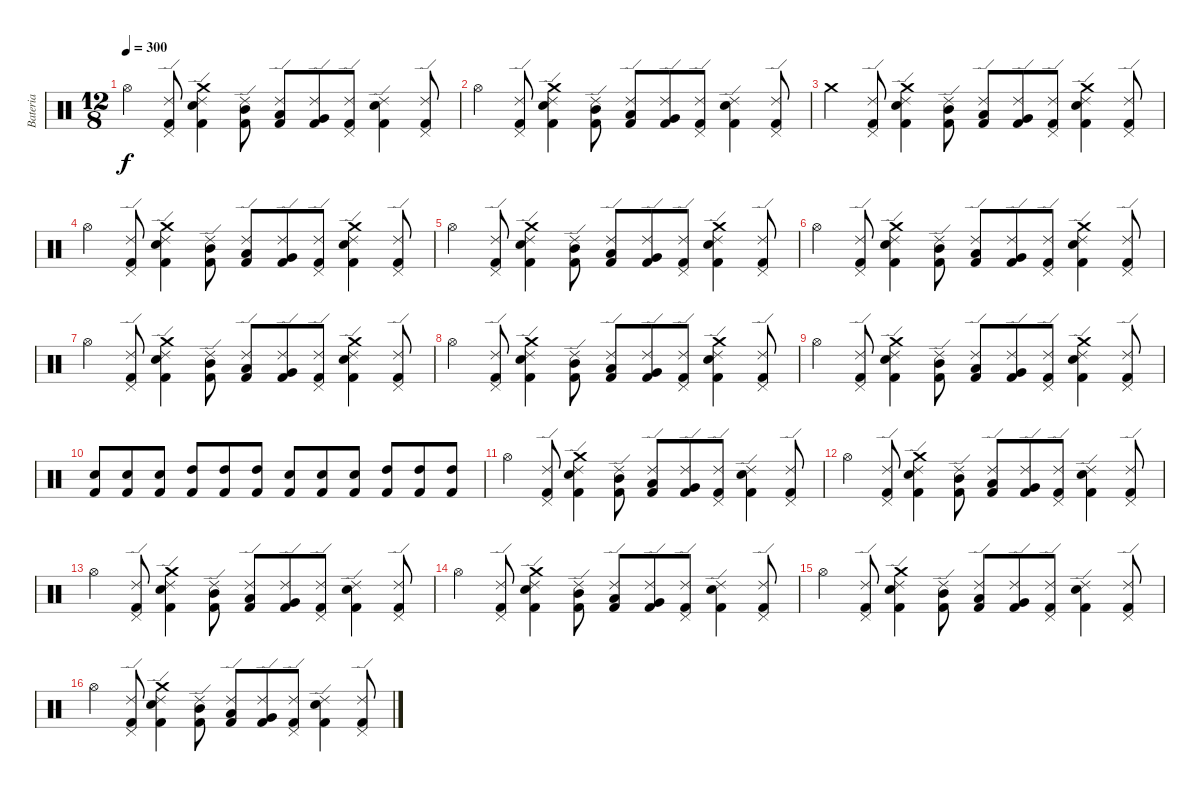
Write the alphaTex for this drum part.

\track ("Bateria" "Bateria") {instrument percussion}
\staff {score}
\articulation defaults
\ts (12 8)
\tempo 300
\clef neutral
\ks c "Hi-Hat (open)".4{dy f}
("Ride (edge) 2" "Pedal Hi-Hat (hit)" "Kick (hit) 2").8 ("Ride (edge) 2" "Crash medium (hit)" "Snare (hit) 2" "Kick (hit) 2").4 ("Ride (edge) 2" "Mid Tom (hit)" "Kick (hit) 2").8 ("Ride (edge) 2" "Low Tom (hit)" "Kick (hit) 2").8 ("Ride (edge) 2" "Very Low Tom (hit)" "Kick (hit) 2").8 ("Ride (edge) 2" "Pedal Hi-Hat (hit)" "Kick (hit) 2").8 ("Ride (edge) 2" "Snare (hit) 2" "Kick (hit) 2").4 ("Ride (edge) 2" "Pedal Hi-Hat (hit)" "Kick (hit) 2").8 |
"Hi-Hat (open)".4 ("Ride (edge) 2" "Pedal Hi-Hat (hit)" "Kick (hit) 2").8 ("Ride (edge) 2" "Crash medium (hit)" "Snare (hit) 2" "Kick (hit) 2").4 ("Ride (edge) 2" "Mid Tom (hit)" "Kick (hit) 2").8 ("Ride (edge) 2" "Low Tom (hit)" "Kick (hit) 2").8 ("Ride (edge) 2" "Very Low Tom (hit)" "Kick (hit) 2").8 ("Ride (edge) 2" "Pedal Hi-Hat (hit)" "Kick (hit) 2").8 ("Ride (edge) 2" "Snare (hit) 2" "Kick (hit) 2").4 ("Ride (edge) 2" "Pedal Hi-Hat (hit)" "Kick (hit) 2").8 |
"Crash medium (hit)".4 ("Ride (edge) 2" "Pedal Hi-Hat (hit)" "Kick (hit) 2").8 ("Ride (edge) 2" "Crash medium (hit)" "Snare (hit) 2" "Kick (hit) 2").4 ("Ride (edge) 2" "Mid Tom (hit)" "Kick (hit) 2").8 ("Ride (edge) 2" "Low Tom (hit)" "Kick (hit) 2").8 ("Ride (edge) 2" "Very Low Tom (hit)" "Kick (hit) 2").8 ("Ride (edge) 2" "Pedal Hi-Hat (hit)" "Kick (hit) 2").8 ("Ride (edge) 2" "Crash medium (hit)" "Snare (hit) 2" "Kick (hit) 2").4 ("Ride (edge) 2" "Pedal Hi-Hat (hit)" "Kick (hit) 2").8 |
"Hi-Hat (open)".4 ("Ride (edge) 2" "Pedal Hi-Hat (hit)" "Kick (hit) 2").8 ("Ride (edge) 2" "Crash medium (hit)" "Snare (hit) 2" "Kick (hit) 2").4 ("Ride (edge) 2" "Mid Tom (hit)" "Kick (hit) 2").8 ("Ride (edge) 2" "Low Tom (hit)" "Kick (hit) 2").8 ("Ride (edge) 2" "Very Low Tom (hit)" "Kick (hit) 2").8 ("Ride (edge) 2" "Pedal Hi-Hat (hit)" "Kick (hit) 2").8 ("Ride (edge) 2" "Crash medium (hit)" "Snare (hit) 2" "Kick (hit) 2").4 ("Ride (edge) 2" "Pedal Hi-Hat (hit)" "Kick (hit) 2").8 |
"Hi-Hat (open)".4 ("Ride (edge) 2" "Pedal Hi-Hat (hit)" "Kick (hit) 2").8 ("Ride (edge) 2" "Crash medium (hit)" "Snare (hit) 2" "Kick (hit) 2").4 ("Ride (edge) 2" "Mid Tom (hit)" "Kick (hit) 2").8 ("Ride (edge) 2" "Low Tom (hit)" "Kick (hit) 2").8 ("Ride (edge) 2" "Very Low Tom (hit)" "Kick (hit) 2").8 ("Ride (edge) 2" "Pedal Hi-Hat (hit)" "Kick (hit) 2").8 ("Ride (edge) 2" "Crash medium (hit)" "Snare (hit) 2" "Kick (hit) 2").4 ("Ride (edge) 2" "Pedal Hi-Hat (hit)" "Kick (hit) 2").8 |
"Hi-Hat (open)".4 ("Ride (edge) 2" "Pedal Hi-Hat (hit)" "Kick (hit) 2").8 ("Ride (edge) 2" "Crash medium (hit)" "Snare (hit) 2" "Kick (hit) 2").4 ("Ride (edge) 2" "Mid Tom (hit)" "Kick (hit) 2").8 ("Ride (edge) 2" "Low Tom (hit)" "Kick (hit) 2").8 ("Ride (edge) 2" "Very Low Tom (hit)" "Kick (hit) 2").8 ("Ride (edge) 2" "Pedal Hi-Hat (hit)" "Kick (hit) 2").8 ("Ride (edge) 2" "Crash medium (hit)" "Snare (hit) 2" "Kick (hit) 2").4 ("Ride (edge) 2" "Pedal Hi-Hat (hit)" "Kick (hit) 2").8 |
"Hi-Hat (open)".4 ("Ride (edge) 2" "Pedal Hi-Hat (hit)" "Kick (hit) 2").8 ("Ride (edge) 2" "Crash medium (hit)" "Snare (hit) 2" "Kick (hit) 2").4 ("Ride (edge) 2" "Mid Tom (hit)" "Kick (hit) 2").8 ("Ride (edge) 2" "Low Tom (hit)" "Kick (hit) 2").8 ("Ride (edge) 2" "Very Low Tom (hit)" "Kick (hit) 2").8 ("Ride (edge) 2" "Pedal Hi-Hat (hit)" "Kick (hit) 2").8 ("Ride (edge) 2" "Crash medium (hit)" "Snare (hit) 2" "Kick (hit) 2").4 ("Ride (edge) 2" "Pedal Hi-Hat (hit)" "Kick (hit) 2").8 |
"Hi-Hat (open)".4 ("Ride (edge) 2" "Pedal Hi-Hat (hit)" "Kick (hit) 2").8 ("Ride (edge) 2" "Crash medium (hit)" "Snare (hit) 2" "Kick (hit) 2").4 ("Ride (edge) 2" "Mid Tom (hit)" "Kick (hit) 2").8 ("Ride (edge) 2" "Low Tom (hit)" "Kick (hit) 2").8 ("Ride (edge) 2" "Very Low Tom (hit)" "Kick (hit) 2").8 ("Ride (edge) 2" "Pedal Hi-Hat (hit)" "Kick (hit) 2").8 ("Ride (edge) 2" "Crash medium (hit)" "Snare (hit) 2" "Kick (hit) 2").4 ("Ride (edge) 2" "Pedal Hi-Hat (hit)" "Kick (hit) 2").8 |
"Hi-Hat (open)".4 ("Ride (edge) 2" "Pedal Hi-Hat (hit)" "Kick (hit) 2").8 ("Ride (edge) 2" "Crash medium (hit)" "Snare (hit) 2" "Kick (hit) 2").4 ("Ride (edge) 2" "Mid Tom (hit)" "Kick (hit) 2").8 ("Ride (edge) 2" "Low Tom (hit)" "Kick (hit) 2").8 ("Ride (edge) 2" "Very Low Tom (hit)" "Kick (hit) 2").8 ("Ride (edge) 2" "Pedal Hi-Hat (hit)" "Kick (hit) 2").8 ("Ride (edge) 2" "Crash medium (hit)" "Snare (hit) 2" "Kick (hit) 2").4 ("Ride (edge) 2" "Pedal Hi-Hat (hit)" "Kick (hit) 2").8 |
("Snare (hit) 2" "Kick (hit) 2").8 ("Snare (hit) 2" "Kick (hit) 2").8 ("Snare (hit) 2" "Kick (hit) 2").8 ("High Tom (hit)" "Kick (hit) 2").8 ("High Tom (hit)" "Kick (hit) 2").8 ("High Tom (hit)" "Kick (hit) 2").8 ("Snare (hit) 2" "Kick (hit) 2").8 ("Snare (hit) 2" "Kick (hit) 2").8 ("Snare (hit) 2" "Kick (hit) 2").8 ("High Tom (hit)" "Kick (hit) 2").8 ("High Tom (hit)" "Kick (hit) 2").8 ("High Tom (hit)" "Kick (hit) 2").8 |
"Hi-Hat (open)".4 ("Ride (edge) 2" "Pedal Hi-Hat (hit)" "Kick (hit) 2").8 ("Ride (edge) 2" "Crash medium (hit)" "Snare (hit) 2" "Kick (hit) 2").4 ("Ride (edge) 2" "Mid Tom (hit)" "Kick (hit) 2").8 ("Ride (edge) 2" "Low Tom (hit)" "Kick (hit) 2").8 ("Ride (edge) 2" "Very Low Tom (hit)" "Kick (hit) 2").8 ("Ride (edge) 2" "Pedal Hi-Hat (hit)" "Kick (hit) 2").8 ("Ride (edge) 2" "Snare (hit) 2" "Kick (hit) 2").4 ("Ride (edge) 2" "Pedal Hi-Hat (hit)" "Kick (hit) 2").8 |
"Hi-Hat (open)".4 ("Ride (edge) 2" "Pedal Hi-Hat (hit)" "Kick (hit) 2").8 ("Ride (edge) 2" "Crash medium (hit)" "Snare (hit) 2" "Kick (hit) 2").4 ("Ride (edge) 2" "Mid Tom (hit)" "Kick (hit) 2").8 ("Ride (edge) 2" "Low Tom (hit)" "Kick (hit) 2").8 ("Ride (edge) 2" "Very Low Tom (hit)" "Kick (hit) 2").8 ("Ride (edge) 2" "Pedal Hi-Hat (hit)" "Kick (hit) 2").8 ("Ride (edge) 2" "Snare (hit) 2" "Kick (hit) 2").4 ("Ride (edge) 2" "Pedal Hi-Hat (hit)" "Kick (hit) 2").8 |
"Hi-Hat (open)".4 ("Ride (edge) 2" "Pedal Hi-Hat (hit)" "Kick (hit) 2").8 ("Ride (edge) 2" "Crash medium (hit)" "Snare (hit) 2" "Kick (hit) 2").4 ("Ride (edge) 2" "Mid Tom (hit)" "Kick (hit) 2").8 ("Ride (edge) 2" "Low Tom (hit)" "Kick (hit) 2").8 ("Ride (edge) 2" "Very Low Tom (hit)" "Kick (hit) 2").8 ("Ride (edge) 2" "Pedal Hi-Hat (hit)" "Kick (hit) 2").8 ("Ride (edge) 2" "Snare (hit) 2" "Kick (hit) 2").4 ("Ride (edge) 2" "Pedal Hi-Hat (hit)" "Kick (hit) 2").8 |
"Hi-Hat (open)".4 ("Ride (edge) 2" "Pedal Hi-Hat (hit)" "Kick (hit) 2").8 ("Ride (edge) 2" "Crash medium (hit)" "Snare (hit) 2" "Kick (hit) 2").4 ("Ride (edge) 2" "Mid Tom (hit)" "Kick (hit) 2").8 ("Ride (edge) 2" "Low Tom (hit)" "Kick (hit) 2").8 ("Ride (edge) 2" "Very Low Tom (hit)" "Kick (hit) 2").8 ("Ride (edge) 2" "Pedal Hi-Hat (hit)" "Kick (hit) 2").8 ("Ride (edge) 2" "Snare (hit) 2" "Kick (hit) 2").4 ("Ride (edge) 2" "Pedal Hi-Hat (hit)" "Kick (hit) 2").8 |
"Hi-Hat (open)".4 ("Ride (edge) 2" "Pedal Hi-Hat (hit)" "Kick (hit) 2").8 ("Ride (edge) 2" "Crash medium (hit)" "Snare (hit) 2" "Kick (hit) 2").4 ("Ride (edge) 2" "Mid Tom (hit)" "Kick (hit) 2").8 ("Ride (edge) 2" "Low Tom (hit)" "Kick (hit) 2").8 ("Ride (edge) 2" "Very Low Tom (hit)" "Kick (hit) 2").8 ("Ride (edge) 2" "Pedal Hi-Hat (hit)" "Kick (hit) 2").8 ("Ride (edge) 2" "Snare (hit) 2" "Kick (hit) 2").4 ("Ride (edge) 2" "Pedal Hi-Hat (hit)" "Kick (hit) 2").8 |
"Hi-Hat (open)".4 ("Ride (edge) 2" "Pedal Hi-Hat (hit)" "Kick (hit) 2").8 ("Ride (edge) 2" "Crash medium (hit)" "Snare (hit) 2" "Kick (hit) 2").4 ("Ride (edge) 2" "Mid Tom (hit)" "Kick (hit) 2").8 ("Ride (edge) 2" "Low Tom (hit)" "Kick (hit) 2").8 ("Ride (edge) 2" "Very Low Tom (hit)" "Kick (hit) 2").8 ("Ride (edge) 2" "Pedal Hi-Hat (hit)" "Kick (hit) 2").8 ("Ride (edge) 2" "Snare (hit) 2" "Kick (hit) 2").4 ("Ride (edge) 2" "Pedal Hi-Hat (hit)" "Kick (hit) 2").8
